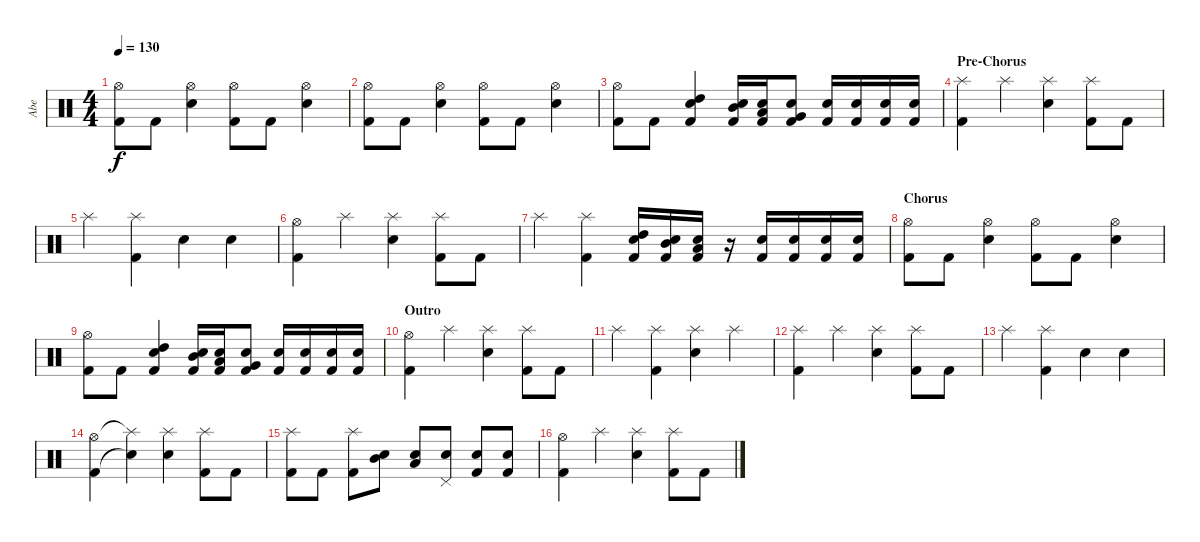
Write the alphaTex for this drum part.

\track ("Abe" "Abe") {instrument percussion}
\staff {score}
\articulation defaults
\ts (4 4)
\tempo 130
\clef neutral
\ks c
("Hi-Hat (open)" "Kick (hit) 2").8{dy f} "Kick (hit) 2".8 ("Hi-Hat (open)" "Snare (hit) 2").4 ("Hi-Hat (open)" "Kick (hit) 2").8 "Kick (hit) 2".8 ("Hi-Hat (open)" "Snare (hit) 2").4 |
("Hi-Hat (open)" "Kick (hit) 2").8 "Kick (hit) 2".8 ("Hi-Hat (open)" "Snare (hit) 2").4 ("Hi-Hat (open)" "Kick (hit) 2").8 "Kick (hit) 2".8 ("Hi-Hat (open)" "Snare (hit) 2").4 |
("Hi-Hat (open)" "Kick (hit) 2").8 "Kick (hit) 2".8 ("Kick (hit) 2" "Snare (hit) 2" "High Tom (hit)").4 ("Kick (hit) 2" "Snare (hit) 2" "Mid Tom (hit)").16 ("Kick (hit) 2" "Snare (hit) 2" "Low Tom (hit)").16 ("Kick (hit) 2" "Snare (hit) 2" "Very Low Tom (hit)").8 ("Kick (hit) 2" "Snare (hit) 2").16 ("Kick (hit) 2" "Snare (hit) 2").16 ("Kick (hit) 2" "Snare (hit) 2").16 ("Kick (hit) 2" "Snare (hit) 2").16 |
\section ("" "Pre-Chorus")
("Splash (hit)" "Kick (hit) 2").4 "Splash (hit)".4 ("Splash (hit)" "Snare (hit) 2").4 ("Splash (hit)" "Kick (hit) 2").8 "Kick (hit) 2".8 |
"Splash (hit)".4 ("Splash (hit)" "Kick (hit) 2").4 "Snare (hit) 2".4 "Snare (hit) 2".4 |
("Hi-Hat (open)" "Kick (hit) 2").4 "Splash (hit)".4 ("Splash (hit)" "Snare (hit) 2").4 ("Splash (hit)" "Kick (hit) 2").8 "Kick (hit) 2".8 |
"Splash (hit)".4 ("Splash (hit)" "Kick (hit) 2").4 ("Kick (hit) 2" "Snare (hit) 2" "High Tom (hit)").16 ("Kick (hit) 2" "Snare (hit) 2" "Mid Tom (hit)").16 ("Kick (hit) 2" "Snare (hit) 2" "Low Tom (hit)").16 r.16 ("Kick (hit) 2" "Snare (hit) 2").16 ("Kick (hit) 2" "Snare (hit) 2").16 ("Kick (hit) 2" "Snare (hit) 2").16 ("Kick (hit) 2" "Snare (hit) 2").16 |
\section ("" "Chorus")
("Hi-Hat (open)" "Kick (hit) 2").8 "Kick (hit) 2".8 ("Hi-Hat (open)" "Snare (hit) 2").4 ("Hi-Hat (open)" "Kick (hit) 2").8 "Kick (hit) 2".8 ("Hi-Hat (open)" "Snare (hit) 2").4 |
("Hi-Hat (open)" "Kick (hit) 2").8 "Kick (hit) 2".8 ("Kick (hit) 2" "Snare (hit) 2" "High Tom (hit)").4 ("Kick (hit) 2" "Snare (hit) 2" "Mid Tom (hit)").16 ("Kick (hit) 2" "Snare (hit) 2" "Low Tom (hit)").16 ("Kick (hit) 2" "Snare (hit) 2" "Very Low Tom (hit)").8 ("Kick (hit) 2" "Snare (hit) 2").16 ("Kick (hit) 2" "Snare (hit) 2").16 ("Kick (hit) 2" "Snare (hit) 2").16 ("Kick (hit) 2" "Snare (hit) 2").16 |
\section ("" "Outro")
("Hi-Hat (open)" "Kick (hit) 2").4 "Splash (hit)".4 ("Splash (hit)" "Snare (hit) 2").4 ("Splash (hit)" "Kick (hit) 2").8 "Kick (hit) 2".8 |
"Splash (hit)".4 ("Splash (hit)" "Kick (hit) 2").4 ("Splash (hit)" "Snare (hit) 2").4 "Splash (hit)".4 |
("Splash (hit)" "Kick (hit) 2").4 "Splash (hit)".4 ("Splash (hit)" "Snare (hit) 2").4 ("Splash (hit)" "Kick (hit) 2").8 "Kick (hit) 2".8 |
"Splash (hit)".4 ("Splash (hit)" "Kick (hit) 2").4 "Snare (hit) 2".4 "Snare (hit) 2".4 |
("Hi-Hat (open)" "Kick (hit) 2").4 ("Splash (hit)"{t} "Snare (hit)"{t}).4 ("Splash (hit)" "Snare (hit) 2").4 ("Splash (hit)" "Kick (hit) 2").8 "Kick (hit) 2".8 |
("Splash (hit)" "Kick (hit) 2").8 "Kick (hit) 2".8 ("Splash (hit)" "Kick (hit) 2").8 ("Snare (hit) 2" "Mid Tom (hit)").8 ("Snare (hit) 2" "Low Tom (hit)").8 ("Snare (hit) 2" "Pedal Hi-Hat (hit)").8 ("Snare (hit) 2" "Kick (hit) 2").8 ("Snare (hit) 2" "Kick (hit) 2").8 |
("Hi-Hat (open)" "Kick (hit) 2").4 "Splash (hit)".4 ("Splash (hit)" "Snare (hit) 2").4 ("Splash (hit)" "Kick (hit) 2").8 "Kick (hit) 2".8
